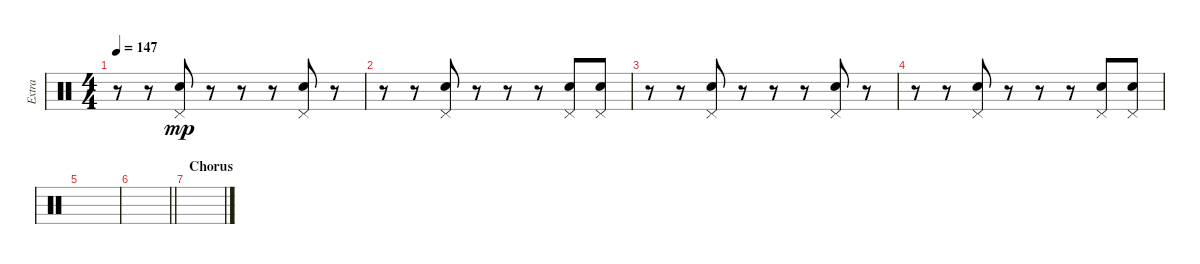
\track ("Extra" "Extra") {instrument percussion}
\staff {score}
\articulation defaults
\ts (4 4)
\tempo 147
\clef neutral
\ks c
r.8{dy mp} r.8 ("Hand Clap (hit)" "Pedal Hi-Hat (hit)").8 r.8 r.8 r.8 ("Hand Clap (hit)" "Pedal Hi-Hat (hit)").8 r.8 |
r.8 r.8 ("Hand Clap (hit)" "Pedal Hi-Hat (hit)").8 r.8 r.8 r.8 ("Hand Clap (hit)" "Pedal Hi-Hat (hit)").8 ("Hand Clap (hit)" "Pedal Hi-Hat (hit)").8 |
r.8 r.8 ("Hand Clap (hit)" "Pedal Hi-Hat (hit)").8 r.8 r.8 r.8 ("Hand Clap (hit)" "Pedal Hi-Hat (hit)").8 r.8 |
r.8 r.8 ("Hand Clap (hit)" "Pedal Hi-Hat (hit)").8 r.8 r.8 r.8 ("Hand Clap (hit)" "Pedal Hi-Hat (hit)").8 ("Hand Clap (hit)" "Pedal Hi-Hat (hit)").8 |
|
\barLineRight lightlight
|
\section ("" "Chorus")
